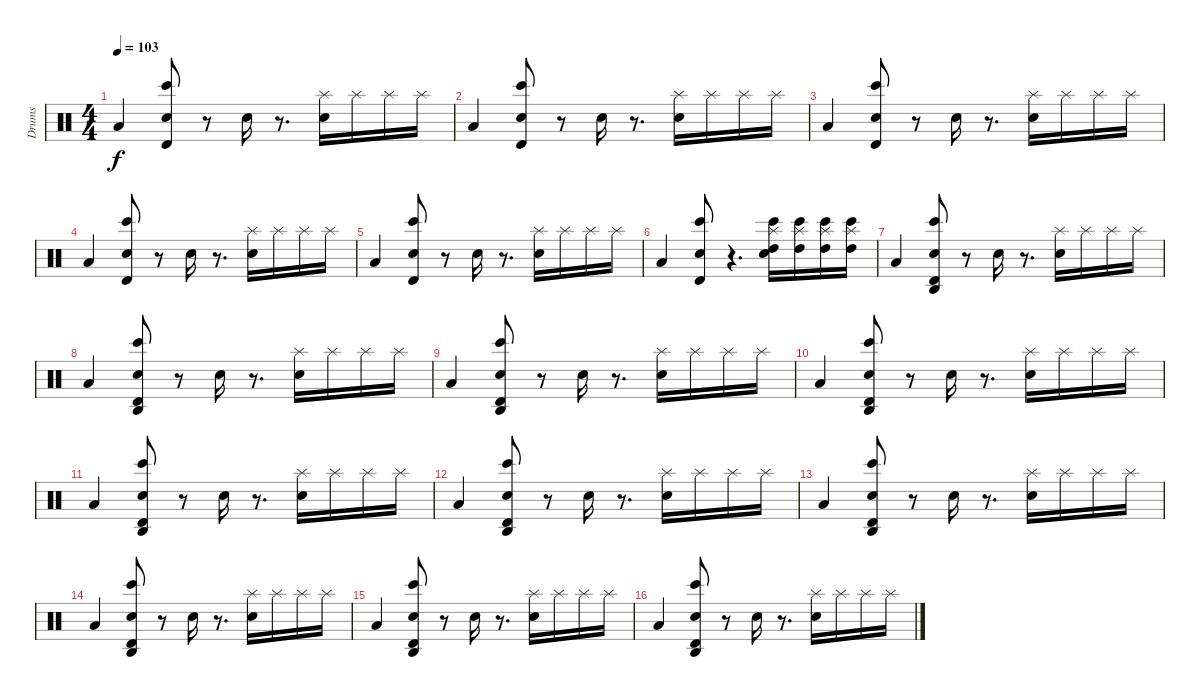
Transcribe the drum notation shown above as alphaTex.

\track ("Drums" "Drums") {instrument percussion}
\staff {score}
\articulation defaults
\ts (4 4)
\tempo 103
\clef neutral
\ks c "Low Tom (hit)".4{dy f}
("Timbale high (hit)" "Bongo High (hit)" "Electric Snare (hit)").8 r.8 "Electric Snare (hit)".16 r.8{d} ("Splash (hit)" "Electric Snare (hit)").16 "Splash (hit)".16 "Splash (hit)".16 "Splash (hit)".16 |
"Low Tom (hit)".4 ("Timbale high (hit)" "Bongo High (hit)" "Electric Snare (hit)").8 r.8 "Electric Snare (hit)".16 r.8{d} ("Splash (hit)" "Electric Snare (hit)").16 "Splash (hit)".16 "Splash (hit)".16 "Splash (hit)".16 |
"Low Tom (hit)".4 ("Timbale high (hit)" "Bongo High (hit)" "Electric Snare (hit)").8 r.8 "Electric Snare (hit)".16 r.8{d} ("Splash (hit)" "Electric Snare (hit)").16 "Splash (hit)".16 "Splash (hit)".16 "Splash (hit)".16 |
"Low Tom (hit)".4 ("Timbale high (hit)" "Bongo High (hit)" "Electric Snare (hit)").8 r.8 "Electric Snare (hit)".16 r.8{d} ("Splash (hit)" "Electric Snare (hit)").16 "Splash (hit)".16 "Splash (hit)".16 "Splash (hit)".16 |
"Low Tom (hit)".4 ("Timbale high (hit)" "Bongo High (hit)" "Electric Snare (hit)").8 r.8 "Electric Snare (hit)".16 r.8{d} ("Splash (hit)" "Electric Snare (hit)").16 "Splash (hit)".16 "Splash (hit)".16 "Splash (hit)".16 |
"Low Tom (hit)".4 ("Timbale high (hit)" "Bongo High (hit)" "Electric Snare (hit)").8 r.4{d} ("High Tom (hit)" "Bongo High (hit)" "Splash (hit)" "Electric Snare (hit)").16 ("High Tom (hit)" "Bongo High (hit)" "Splash (hit)").16 ("High Tom (hit)" "Bongo High (hit)" "Splash (hit)").16 ("High Tom (hit)" "Bongo High (hit)" "Splash (hit)").16 |
"Low Tom (hit)".4 ("Agogo high (hit)" "Timbale high (hit)" "Bongo High (hit)" "Electric Snare (hit)").8 r.8 "Electric Snare (hit)".16 r.8{d} ("Splash (hit)" "Electric Snare (hit)").16 "Splash (hit)".16 "Splash (hit)".16 "Splash (hit)".16 |
"Low Tom (hit)".4 ("Agogo high (hit)" "Timbale high (hit)" "Bongo High (hit)" "Electric Snare (hit)").8 r.8 "Electric Snare (hit)".16 r.8{d} ("Splash (hit)" "Electric Snare (hit)").16 "Splash (hit)".16 "Splash (hit)".16 "Splash (hit)".16 |
"Low Tom (hit)".4 ("Agogo high (hit)" "Timbale high (hit)" "Bongo High (hit)" "Electric Snare (hit)").8 r.8 "Electric Snare (hit)".16 r.8{d} ("Splash (hit)" "Electric Snare (hit)").16 "Splash (hit)".16 "Splash (hit)".16 "Splash (hit)".16 |
"Low Tom (hit)".4 ("Agogo high (hit)" "Timbale high (hit)" "Bongo High (hit)" "Electric Snare (hit)").8 r.8 "Electric Snare (hit)".16 r.8{d} ("Splash (hit)" "Electric Snare (hit)").16 "Splash (hit)".16 "Splash (hit)".16 "Splash (hit)".16 |
"Low Tom (hit)".4 ("Agogo high (hit)" "Timbale high (hit)" "Bongo High (hit)" "Electric Snare (hit)").8 r.8 "Electric Snare (hit)".16 r.8{d} ("Splash (hit)" "Electric Snare (hit)").16 "Splash (hit)".16 "Splash (hit)".16 "Splash (hit)".16 |
"Low Tom (hit)".4 ("Agogo high (hit)" "Timbale high (hit)" "Bongo High (hit)" "Electric Snare (hit)").8 r.8 "Electric Snare (hit)".16 r.8{d} ("Splash (hit)" "Electric Snare (hit)").16 "Splash (hit)".16 "Splash (hit)".16 "Splash (hit)".16 |
"Low Tom (hit)".4 ("Agogo high (hit)" "Timbale high (hit)" "Bongo High (hit)" "Electric Snare (hit)").8 r.8 "Electric Snare (hit)".16 r.8{d} ("Splash (hit)" "Electric Snare (hit)").16 "Splash (hit)".16 "Splash (hit)".16 "Splash (hit)".16 |
"Low Tom (hit)".4 ("Agogo high (hit)" "Timbale high (hit)" "Bongo High (hit)" "Electric Snare (hit)").8 r.8 "Electric Snare (hit)".16 r.8{d} ("Splash (hit)" "Electric Snare (hit)").16 "Splash (hit)".16 "Splash (hit)".16 "Splash (hit)".16 |
"Low Tom (hit)".4 ("Agogo high (hit)" "Timbale high (hit)" "Bongo High (hit)" "Electric Snare (hit)").8 r.8 "Electric Snare (hit)".16 r.8{d} ("Splash (hit)" "Electric Snare (hit)").16 "Splash (hit)".16 "Splash (hit)".16 "Splash (hit)".16 |
"Low Tom (hit)".4 ("Agogo high (hit)" "Timbale high (hit)" "Bongo High (hit)" "Electric Snare (hit)").8 r.8 "Electric Snare (hit)".16 r.8{d} ("Splash (hit)" "Electric Snare (hit)").16 "Splash (hit)".16 "Splash (hit)".16 "Splash (hit)".16
